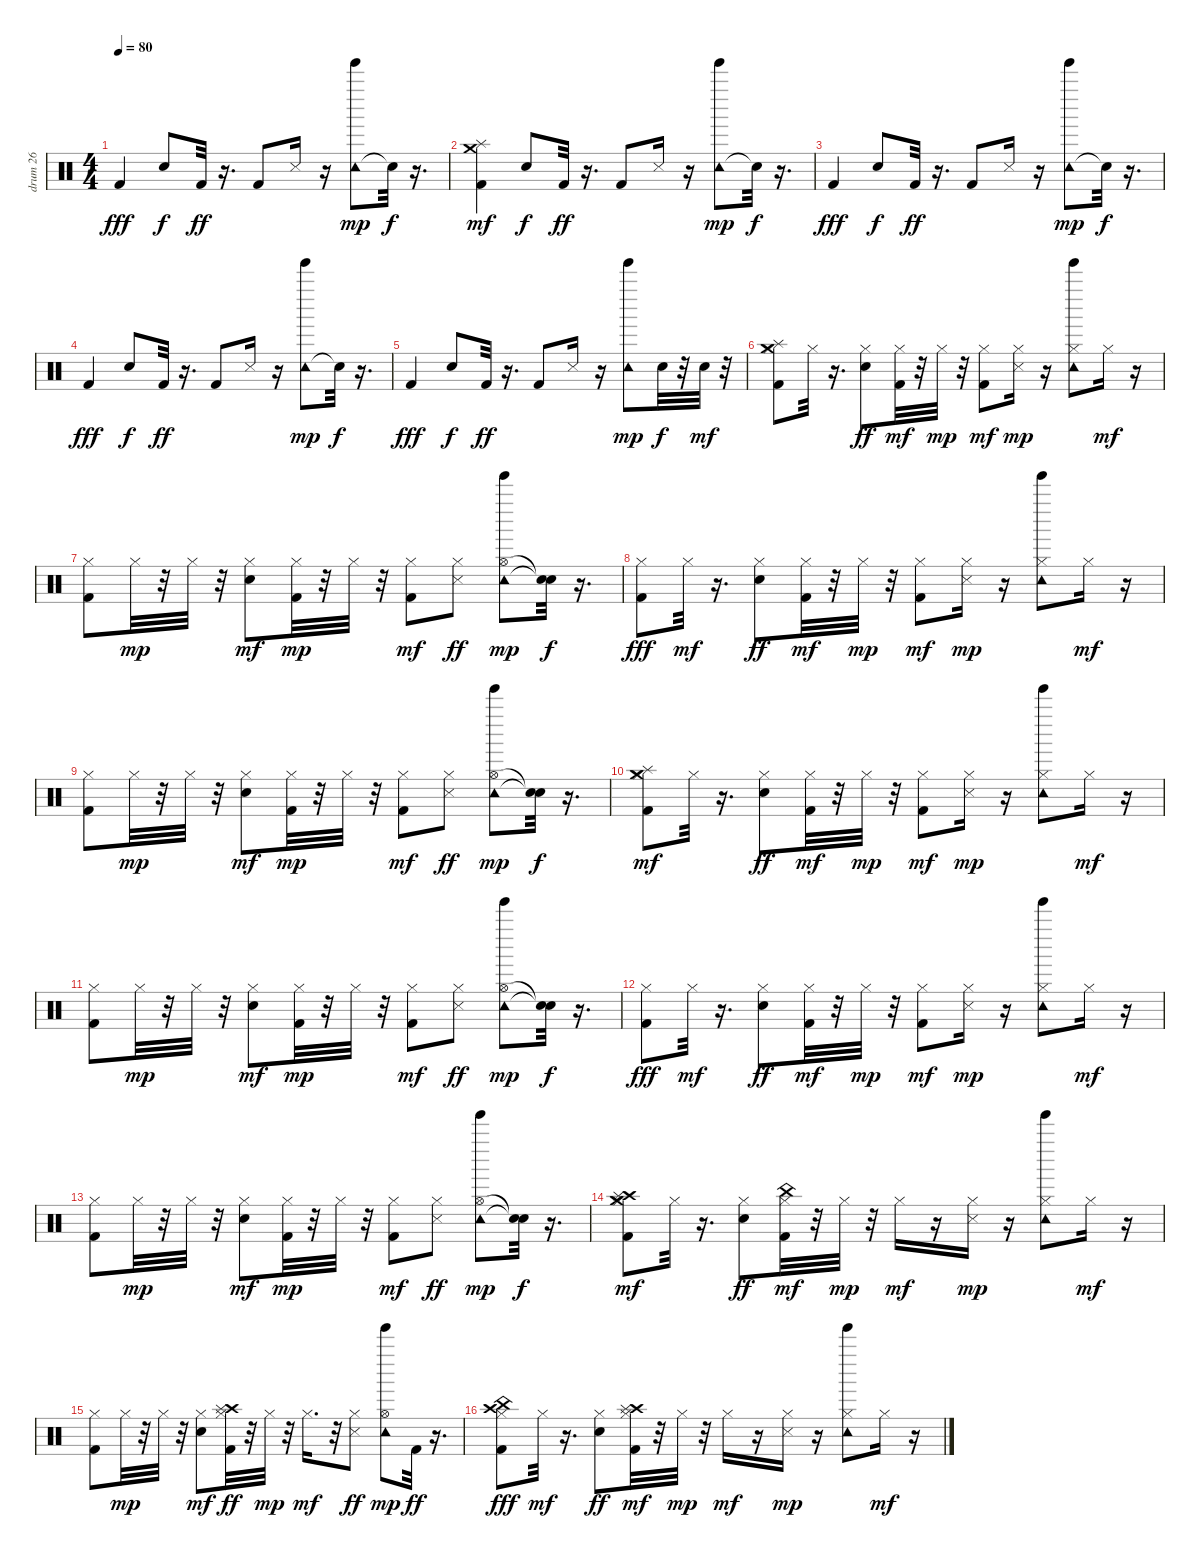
\track ("drum 26" "drum 26") {instrument percussion}
\staff {score}
\articulation defaults
\ts (4 4)
\tempo 80
\clef neutral
\ks c "Kick (hit) 2".4{dy fff} "Hand Clap (hit)".8{dy f} "Kick (hit) 2".32{dy ff}
r.16{d} "Kick (hit) 2".8 "Snare (side stick) 3".16 r.16 ("Tambourine (hit)" "Tinkle Bell (hit)").8{dy mp} "Snare (hit)"{t}.32{dy f} r.16{d} |
("Kick (hit) 2" "Splash (hit)" "Crash medium (hit)").4{dy mf} "Hand Clap (hit)".8{dy f} "Kick (hit) 2".32{dy ff} r.16{d} "Kick (hit) 2".8 "Snare (side stick) 3".16 r.16 ("Tambourine (hit)" "Tinkle Bell (hit)").8{dy mp} "Snare (hit)"{t}.32{dy f} r.16{d} |
"Kick (hit) 2".4{dy fff} "Hand Clap (hit)".8{dy f} "Kick (hit) 2".32{dy ff} r.16{d} "Kick (hit) 2".8 "Snare (side stick) 3".16 r.16 ("Tambourine (hit)" "Tinkle Bell (hit)").8{dy mp} "Snare (hit)"{t}.32{dy f} r.16{d} |
"Kick (hit) 2".4{dy fff} "Hand Clap (hit)".8{dy f} "Kick (hit) 2".32{dy ff} r.16{d} "Kick (hit) 2".8 "Snare (side stick) 3".16 r.16 ("Tambourine (hit)" "Tinkle Bell (hit)").8{dy mp} "Snare (hit)"{t}.32{dy f} r.16{d} |
"Kick (hit) 2".4{dy fff} "Hand Clap (hit)".8{dy f} "Kick (hit) 2".32{dy ff} r.16{d} "Kick (hit) 2".8 "Snare (side stick) 3".16 r.16 ("Tambourine (hit)" "Tinkle Bell (hit)").8{dy mp} "Electric Snare (hit)".32{dy f} r.32 "Electric Snare (hit)".32{dy mf} r.32 |
("Kick (hit) 2" "Hi-Hat (closed)" "Splash (hit)" "Crash medium (hit)").8 "Hi-Hat (closed)".32 r.16{d} ("Hand Clap (hit)" "Hi-Hat (closed)").8{dy ff} ("Kick (hit) 2" "Hi-Hat (closed)").32{dy mf} r.32 "Hi-Hat (closed)".32{dy mp} r.32 ("Kick (hit) 2" "Hi-Hat (closed)").8{dy mf} ("Snare (side stick) 3" "Hi-Hat (closed)").16{dy mp} r.16 ("Hi-Hat (closed)" "Tambourine (hit)" "Tinkle Bell (hit)").8 "Hi-Hat (closed)".16{dy mf} r.16 |
("Kick (hit) 2" "Hi-Hat (closed)").8 "Hi-Hat (closed)".32{dy mp} r.32 "Hi-Hat (closed)".32 r.32 ("Hand Clap (hit)" "Hi-Hat (closed)").8{dy mf} ("Kick (hit) 2" "Hi-Hat (closed)").32{dy mp} r.32 "Hi-Hat (closed)".32 r.32 ("Kick (hit) 2" "Hi-Hat (closed)").8{dy mf} ("Snare (side stick) 3" "Hi-Hat (closed)").8{dy ff} ("Hi-Hat (open)" "Tambourine (hit)" "Tinkle Bell (hit)").8{dy mp} ("Snare (hit)"{t} "Snare (hit)"{t}).32{dy f} r.16{d} |
("Kick (hit) 2" "Hi-Hat (closed)").8{dy fff} "Hi-Hat (closed)".32{dy mf} r.16{d} ("Hand Clap (hit)" "Hi-Hat (closed)").8{dy ff} ("Kick (hit) 2" "Hi-Hat (closed)").32{dy mf} r.32 "Hi-Hat (closed)".32{dy mp} r.32 ("Kick (hit) 2" "Hi-Hat (closed)").8{dy mf} ("Snare (side stick) 3" "Hi-Hat (closed)").16{dy mp} r.16 ("Hi-Hat (closed)" "Tambourine (hit)" "Tinkle Bell (hit)").8 "Hi-Hat (closed)".16{dy mf} r.16 |
("Kick (hit) 2" "Hi-Hat (closed)").8 "Hi-Hat (closed)".32{dy mp} r.32 "Hi-Hat (closed)".32 r.32 ("Hand Clap (hit)" "Hi-Hat (closed)").8{dy mf} ("Kick (hit) 2" "Hi-Hat (closed)").32{dy mp} r.32 "Hi-Hat (closed)".32 r.32 ("Kick (hit) 2" "Hi-Hat (closed)").8{dy mf} ("Snare (side stick) 3" "Hi-Hat (closed)").8{dy ff} ("Hi-Hat (open)" "Tambourine (hit)" "Tinkle Bell (hit)").8{dy mp} ("Snare (hit)"{t} "Snare (hit)"{t}).32{dy f} r.16{d} |
("Kick (hit) 2" "Hi-Hat (closed)" "Splash (hit)" "Crash medium (hit)").8{dy mf} "Hi-Hat (closed)".32 r.16{d} ("Hand Clap (hit)" "Hi-Hat (closed)").8{dy ff} ("Kick (hit) 2" "Hi-Hat (closed)").32{dy mf} r.32 "Hi-Hat (closed)".32{dy mp} r.32 ("Kick (hit) 2" "Hi-Hat (closed)").8{dy mf} ("Snare (side stick) 3" "Hi-Hat (closed)").16{dy mp} r.16 ("Hi-Hat (closed)" "Tambourine (hit)" "Tinkle Bell (hit)").8 "Hi-Hat (closed)".16{dy mf} r.16 |
("Kick (hit) 2" "Hi-Hat (closed)").8 "Hi-Hat (closed)".32{dy mp} r.32 "Hi-Hat (closed)".32 r.32 ("Hand Clap (hit)" "Hi-Hat (closed)").8{dy mf} ("Kick (hit) 2" "Hi-Hat (closed)").32{dy mp} r.32 "Hi-Hat (closed)".32 r.32 ("Kick (hit) 2" "Hi-Hat (closed)").8{dy mf} ("Snare (side stick) 3" "Hi-Hat (closed)").8{dy ff} ("Hi-Hat (open)" "Tambourine (hit)" "Tinkle Bell (hit)").8{dy mp} ("Snare (hit)"{t} "Snare (hit)"{t}).32{dy f} r.16{d} |
("Kick (hit) 2" "Hi-Hat (closed)").8{dy fff} "Hi-Hat (closed)".32{dy mf} r.16{d} ("Hand Clap (hit)" "Hi-Hat (closed)").8{dy ff} ("Kick (hit) 2" "Hi-Hat (closed)").32{dy mf} r.32 "Hi-Hat (closed)".32{dy mp} r.32 ("Kick (hit) 2" "Hi-Hat (closed)").8{dy mf} ("Snare (side stick) 3" "Hi-Hat (closed)").16{dy mp} r.16 ("Hi-Hat (closed)" "Tambourine (hit)" "Tinkle Bell (hit)").8 "Hi-Hat (closed)".16{dy mf} r.16 |
("Kick (hit) 2" "Hi-Hat (closed)").8 "Hi-Hat (closed)".32{dy mp} r.32 "Hi-Hat (closed)".32 r.32 ("Hand Clap (hit)" "Hi-Hat (closed)").8{dy mf} ("Kick (hit) 2" "Hi-Hat (closed)").32{dy mp} r.32 "Hi-Hat (closed)".32 r.32 ("Kick (hit) 2" "Hi-Hat (closed)").8{dy mf} ("Snare (side stick) 3" "Hi-Hat (closed)").8{dy ff} ("Hi-Hat (open)" "Tambourine (hit)" "Tinkle Bell (hit)").8{dy mp} ("Snare (hit)"{t} "Snare (hit)"{t}).32{dy f} r.16{d} |
("Kick (hit) 2" "Hi-Hat (closed)" "Crash high (hit)" "Splash (hit)" "Crash medium (hit)").8{dy mf} "Hi-Hat (closed)".32 r.16{d} ("Hand Clap (hit)" "Hi-Hat (closed)").8{dy ff} ("Kick (hit) 2" "Hi-Hat (closed)" "China (hit)").32{dy mf} r.32 "Hi-Hat (closed)".32{dy mp} r.32 "Hi-Hat (closed)".16{dy mf} r.16 ("Snare (side stick) 3" "Hi-Hat (closed)").16{dy mp} r.16 ("Hi-Hat (closed)" "Tambourine (hit)" "Tinkle Bell (hit)").8 "Hi-Hat (closed)".16{dy mf} r.16 |
("Kick (hit) 2" "Hi-Hat (closed)").8 "Hi-Hat (closed)".32{dy mp} r.32 "Hi-Hat (closed)".32 r.32 ("Hand Clap (hit)" "Hi-Hat (closed)").8{dy mf} ("Kick (hit) 2" "Hi-Hat (closed)" "Crash high (hit)" "Splash (hit)").32{dy ff} r.32 "Hi-Hat (closed)".32{dy mp} r.32 "Hi-Hat (closed)".16{d dy mf} r.32 ("Snare (side stick) 3" "Hi-Hat (closed)").8{dy ff} ("Hi-Hat (open)" "Tambourine (hit)" "Tinkle Bell (hit)").8{dy mp} "Kick (hit) 2".32{dy ff} r.16{d} |
("Kick (hit) 2" "Hi-Hat (closed)" "Crash high (hit)" "China (hit)").8{dy fff} "Hi-Hat (closed)".32{dy mf} r.16{d} ("Hand Clap (hit)" "Hi-Hat (closed)").8{dy ff} ("Kick (hit) 2" "Hi-Hat (closed)" "Crash high (hit)" "Splash (hit)").32{dy mf} r.32 "Hi-Hat (closed)".32{dy mp} r.32 "Hi-Hat (closed)".16{dy mf} r.16 ("Snare (side stick) 3" "Hi-Hat (closed)").16{dy mp} r.16 ("Hi-Hat (closed)" "Tambourine (hit)" "Tinkle Bell (hit)").8 "Hi-Hat (closed)".16{dy mf} r.16
